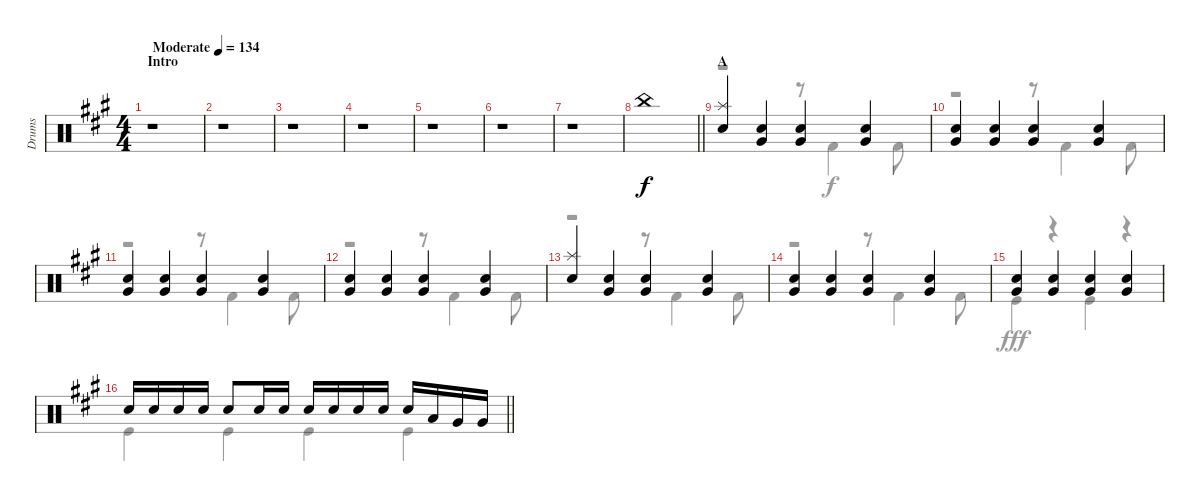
\track ("Drums" "Drums") {instrument percussion}
\staff {score}
\articulation defaults
\voice
\ts (4 4)
\section ("" "Intro")
\tempo (134 "Moderate")
\tempo 135
\tempo (134 "Moderate")
\clef neutral
\ks a
r.1{dy f} |
r.1 |
r.1 |
r.1 |
r.1 |
r.1 |
r.1 |
\barLineRight lightlight "China (hit)".1
|
\section ("" "A")
("Splash (hit)" "Snare (hit) 2").4 ("Snare (hit) 2" "Very Low Tom (hit)").4 ("Snare (hit) 2" "Very Low Tom (hit)").4 ("Snare (hit) 2" "Very Low Tom (hit)").4 |
("Snare (hit) 2" "Very Low Tom (hit)").4 ("Snare (hit) 2" "Very Low Tom (hit)").4 ("Snare (hit) 2" "Very Low Tom (hit)").4 ("Snare (hit) 2" "Very Low Tom (hit)").4 |
("Snare (hit) 2" "Very Low Tom (hit)").4 ("Snare (hit) 2" "Very Low Tom (hit)").4 ("Snare (hit) 2" "Very Low Tom (hit)").4 ("Snare (hit) 2" "Very Low Tom (hit)").4 |
("Snare (hit) 2" "Very Low Tom (hit)").4 ("Snare (hit) 2" "Very Low Tom (hit)").4 ("Snare (hit) 2" "Very Low Tom (hit)").4 ("Snare (hit) 2" "Very Low Tom (hit)").4 |
("Splash (hit)" "Snare (hit) 2").4 ("Snare (hit) 2" "Very Low Tom (hit)").4 ("Snare (hit) 2" "Very Low Tom (hit)").4 ("Snare (hit) 2" "Very Low Tom (hit)").4 |
("Snare (hit) 2" "Very Low Tom (hit)").4 ("Snare (hit) 2" "Very Low Tom (hit)").4 ("Snare (hit) 2" "Very Low Tom (hit)").4 ("Snare (hit) 2" "Very Low Tom (hit)").4 |
("Snare (hit) 2" "Very Low Tom (hit)").4 ("Snare (hit) 2" "Very Low Tom (hit)").4 ("Snare (hit) 2" "Very Low Tom (hit)").4 ("Snare (hit) 2" "Very Low Tom (hit)").4 |
\barLineRight lightlight "Snare (hit) 2".16 "Snare (hit) 2".16 "Snare (hit) 2".16 "Snare (hit) 2".16 "Snare (hit) 2".8 "Snare (hit) 2".16 "Snare (hit) 2".16 "Snare (hit) 2".16 "Snare (hit) 2".16 "Snare (hit) 2".16 "Snare (hit) 2".16 "Snare (hit) 2".16 "Low Tom (hit)".16 "Very Low Tom (hit)".16 "Very Low Tom (hit)".16
\voice
\clef neutral
\ottava regular
\simile none
\ks a
r.1{dy f} |
r.1 |
r.1 |
r.1 |
r.1 |
r.1 |
r.1 |
\barLineRight lightlight
|
r.2 r.8 "Kick (hit) 2".4 "Kick (hit) 2".8 |
r.2 r.8 "Kick (hit) 2".4 "Kick (hit) 2".8 |
r.2 r.8 "Kick (hit) 2".4 "Kick (hit) 2".8 |
r.2 r.8 "Kick (hit) 2".4 "Kick (hit) 2".8 |
r.2 r.8 "Kick (hit) 2".4 "Kick (hit) 2".8 |
r.2 r.8 "Kick (hit) 2".4 "Kick (hit) 2".8 |
"Kick (hit)".4{dy fff} r.4 "Kick (hit)".4 r.4 |
\barLineRight lightlight "Kick (hit)".4 "Kick (hit)".4 "Kick (hit)".4 "Kick (hit)".4
